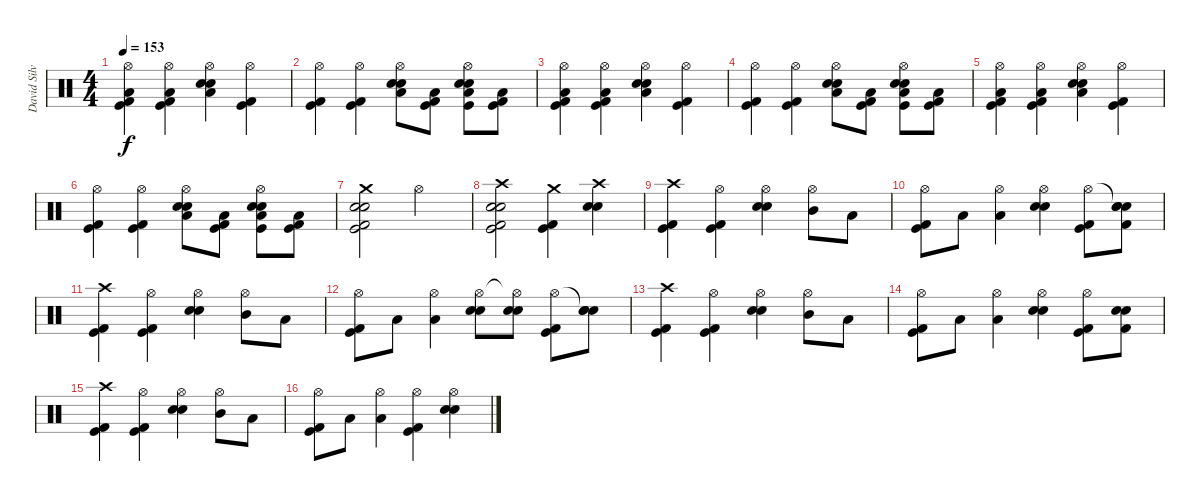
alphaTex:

\track ("David Silveria" "David Silv") {instrument percussion}
\staff {score}
\articulation defaults
\ts (4 4)
\tempo 153
\clef neutral
\ks c
("Hi-Hat (open)" "Kick (hit)" "Kick (hit) 2" "Low Floor Tom (hit)").4{dy f} ("Hi-Hat (open)" "Kick (hit)" "Kick (hit) 2" "Low Floor Tom (hit)").4 ("Hi-Hat (open)" "Electric Snare (hit)" "Low Floor Tom (hit)" "Snare (hit) 2").4 ("Hi-Hat (open)" "Kick (hit)" "Kick (hit) 2").4 |
("Hi-Hat (open)" "Kick (hit)" "Kick (hit) 2").4 ("Hi-Hat (open)" "Kick (hit)" "Kick (hit) 2").4 ("Hi-Hat (open)" "Electric Snare (hit)" "Low Floor Tom (hit)" "Snare (hit) 2").8 ("Kick (hit)" "Kick (hit) 2" "Low Floor Tom (hit)").8 ("Hi-Hat (open)" "Low Tom (hit)" "Electric Snare (hit)" "Kick (hit)" "Snare (hit) 2").8 ("Kick (hit) 2" "Kick (hit)" "Low Floor Tom (hit)").8 |
("Hi-Hat (open)" "Kick (hit)" "Kick (hit) 2" "Low Floor Tom (hit)").4 ("Hi-Hat (open)" "Kick (hit)" "Kick (hit) 2" "Low Floor Tom (hit)").4 ("Hi-Hat (open)" "Electric Snare (hit)" "Low Floor Tom (hit)" "Snare (hit) 2").4 ("Hi-Hat (open)" "Kick (hit)" "Kick (hit) 2").4 |
("Hi-Hat (open)" "Kick (hit)" "Kick (hit) 2").4 ("Hi-Hat (open)" "Kick (hit)" "Kick (hit) 2").4 ("Hi-Hat (open)" "Electric Snare (hit)" "Low Floor Tom (hit)" "Snare (hit) 2").8 ("Kick (hit)" "Kick (hit) 2" "Low Floor Tom (hit)").8 ("Hi-Hat (open)" "Low Tom (hit)" "Electric Snare (hit)" "Kick (hit)" "Snare (hit) 2").8 ("Kick (hit) 2" "Kick (hit)" "Low Floor Tom (hit)").8 |
("Hi-Hat (open)" "Kick (hit)" "Kick (hit) 2" "Low Floor Tom (hit)").4 ("Hi-Hat (open)" "Kick (hit)" "Kick (hit) 2" "Low Floor Tom (hit)").4 ("Hi-Hat (open)" "Electric Snare (hit)" "Low Floor Tom (hit)" "Snare (hit) 2").4 ("Hi-Hat (open)" "Kick (hit)" "Kick (hit) 2").4 |
("Hi-Hat (open)" "Kick (hit)" "Kick (hit) 2").4 ("Hi-Hat (open)" "Kick (hit)" "Kick (hit) 2").4 ("Hi-Hat (open)" "Electric Snare (hit)" "Low Floor Tom (hit)" "Snare (hit) 2").8 ("Kick (hit)" "Kick (hit) 2" "Low Floor Tom (hit)").8 ("Hi-Hat (open)" "Low Tom (hit)" "Electric Snare (hit)" "Kick (hit)" "Snare (hit) 2").8 ("Kick (hit) 2" "Kick (hit)" "Low Floor Tom (hit)").8 |
("Crash medium (hit)" "Electric Snare (hit)" "Kick (hit) 2" "Kick (hit)" "Snare (hit) 2").2 "Hi-Hat (open)".2 |
("Crash high (hit)" "Electric Snare (hit)" "Kick (hit)" "Kick (hit) 2" "Snare (hit) 2").2 ("Crash medium (hit)" "Kick (hit) 2" "Kick (hit)").4 ("Crash high (hit)" "Electric Snare (hit)" "Snare (hit) 2").4 |
("Crash high (hit)" "Kick (hit)" "Kick (hit) 2").4 ("Hi-Hat (open)" "Kick (hit)" "Kick (hit) 2").4 ("Hi-Hat (open)" "Electric Snare (hit)" "Snare (hit) 2").4 ("Hi-Hat (open)" "Mid Tom (hit)").8 "Low Tom (hit)".8 |
("Hi-Hat (open)" "Kick (hit)" "Kick (hit) 2").8 "Low Tom (hit)".8 ("Hi-Hat (open)" "Low Floor Tom (hit)").4 ("Hi-Hat (open)" "Electric Snare (hit)" "Snare (hit) 2").4 ("Hi-Hat (open)" "Kick (hit)" "Kick (hit) 2").8 ("Snare (hit)"{t} "Electric Snare (hit)" "Kick (hit) 2" "Snare (hit) 2").8 |
("Crash high (hit)" "Kick (hit)" "Kick (hit) 2").4 ("Hi-Hat (open)" "Kick (hit)" "Kick (hit) 2").4 ("Hi-Hat (open)" "Electric Snare (hit)" "Snare (hit) 2").4 ("Hi-Hat (open)" "Mid Tom (hit)").8 "Low Tom (hit)".8 |
("Hi-Hat (open)" "Kick (hit)" "Kick (hit) 2").8 "Low Tom (hit)".8 ("Hi-Hat (open)" "Low Floor Tom (hit)").4 ("Hi-Hat (open)" "Electric Snare (hit)" "Snare (hit) 2").8 ("Hi-Hat (open)"{t} "Electric Snare (hit)" "Snare (hit) 2").8 ("Hi-Hat (open)" "Kick (hit)" "Kick (hit) 2").8 ("Snare (hit)"{t} "Electric Snare (hit)" "Snare (hit) 2").8 |
("Crash high (hit)" "Kick (hit)" "Kick (hit) 2").4 ("Hi-Hat (open)" "Kick (hit)" "Kick (hit) 2").4 ("Hi-Hat (open)" "Electric Snare (hit)" "Snare (hit) 2").4 ("Hi-Hat (open)" "Mid Tom (hit)").8 "Low Tom (hit)".8 |
("Hi-Hat (open)" "Kick (hit)" "Kick (hit) 2").8 "Low Tom (hit)".8 ("Hi-Hat (open)" "Low Floor Tom (hit)").4 ("Hi-Hat (open)" "Electric Snare (hit)" "Snare (hit) 2").4 ("Hi-Hat (open)" "Kick (hit)" "Kick (hit) 2").8 ("Electric Snare (hit)" "Kick (hit) 2" "Snare (hit) 2").8 |
("Crash high (hit)" "Kick (hit)" "Kick (hit) 2").4 ("Hi-Hat (open)" "Kick (hit)" "Kick (hit) 2").4 ("Hi-Hat (open)" "Electric Snare (hit)" "Snare (hit) 2").4 ("Hi-Hat (open)" "Mid Tom (hit)").8 "Low Tom (hit)".8 |
("Hi-Hat (open)" "Kick (hit)" "Kick (hit) 2").8 "Low Tom (hit)".8 ("Hi-Hat (open)" "Low Floor Tom (hit)").4 ("Hi-Hat (open)" "Kick (hit)" "Kick (hit) 2").4 ("Hi-Hat (open)" "Electric Snare (hit)" "Snare (hit) 2").4
